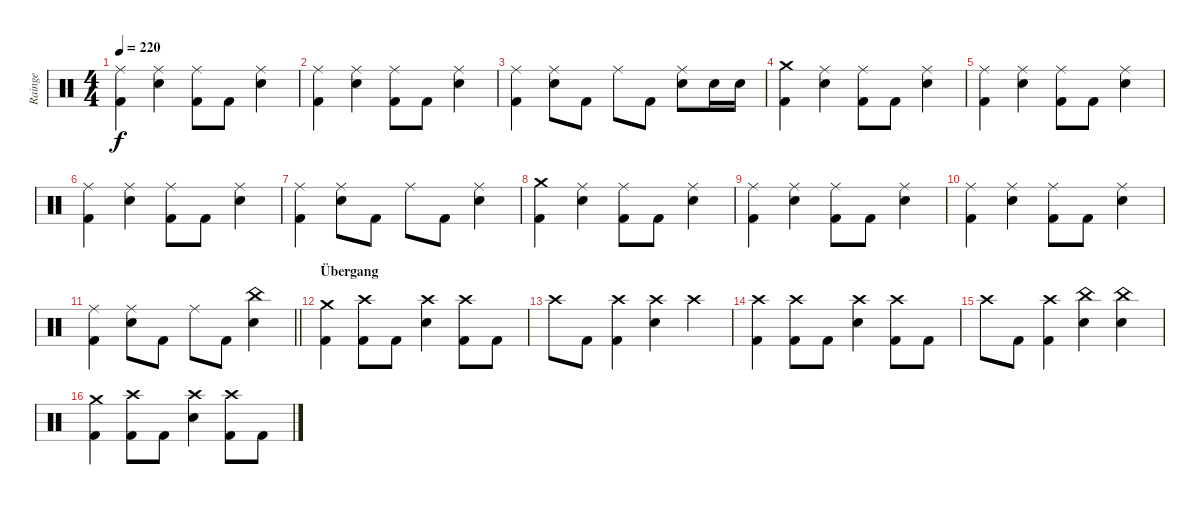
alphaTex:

\track ("Rainge" "Rainge") {instrument percussion}
\staff {score}
\articulation defaults
\ts (4 4)
\tempo 220
\clef neutral
\ks c
("Ride (middle)" "Kick (hit) 2").4{dy f} ("Ride (middle)" "Electric Snare (hit)").4 ("Ride (middle)" "Kick (hit) 2").8 "Kick (hit) 2".8 ("Ride (middle)" "Electric Snare (hit)").4 |
("Ride (middle)" "Kick (hit) 2").4 ("Ride (middle)" "Electric Snare (hit)").4 ("Ride (middle)" "Kick (hit) 2").8 "Kick (hit) 2".8 ("Ride (middle)" "Electric Snare (hit)").4 |
("Ride (middle)" "Kick (hit) 2").4 ("Ride (middle)" "Electric Snare (hit)").8 "Kick (hit) 2".8 "Ride (middle)".8 "Kick (hit) 2".8 ("Ride (middle)" "Electric Snare (hit)").8 "Electric Snare (hit)".16 "Electric Snare (hit)".16 |
("Crash medium (hit)" "Kick (hit) 2").4 ("Ride (middle)" "Electric Snare (hit)").4 ("Ride (middle)" "Kick (hit) 2").8 "Kick (hit) 2".8 ("Ride (middle)" "Electric Snare (hit)").4 |
("Ride (middle)" "Kick (hit) 2").4 ("Ride (middle)" "Electric Snare (hit)").4 ("Ride (middle)" "Kick (hit) 2").8 "Kick (hit) 2".8 ("Ride (middle)" "Electric Snare (hit)").4 |
("Ride (middle)" "Kick (hit) 2").4 ("Ride (middle)" "Electric Snare (hit)").4 ("Ride (middle)" "Kick (hit) 2").8 "Kick (hit) 2".8 ("Ride (middle)" "Electric Snare (hit)").4 |
("Ride (middle)" "Kick (hit) 2").4 ("Ride (middle)" "Electric Snare (hit)").8 "Kick (hit) 2".8 "Ride (middle)".8 "Kick (hit) 2".8 ("Ride (middle)" "Electric Snare (hit)").4 |
("Crash medium (hit)" "Kick (hit) 2").4 ("Ride (middle)" "Electric Snare (hit)").4 ("Ride (middle)" "Kick (hit) 2").8 "Kick (hit) 2".8 ("Ride (middle)" "Electric Snare (hit)").4 |
("Ride (middle)" "Kick (hit) 2").4 ("Ride (middle)" "Electric Snare (hit)").4 ("Ride (middle)" "Kick (hit) 2").8 "Kick (hit) 2".8 ("Ride (middle)" "Electric Snare (hit)").4 |
("Ride (middle)" "Kick (hit) 2").4 ("Ride (middle)" "Electric Snare (hit)").4 ("Ride (middle)" "Kick (hit) 2").8 "Kick (hit) 2".8 ("Ride (middle)" "Electric Snare (hit)").4 |
\barLineRight lightlight
("Ride (middle)" "Kick (hit) 2").4 ("Ride (middle)" "Electric Snare (hit)").8 "Kick (hit) 2".8 "Ride (middle)".8 "Kick (hit) 2".8 ("China (hit)" "Electric Snare (hit)").4 |
\section ("" "Übergang")
("Crash medium (hit)" "Kick (hit) 2").4 ("Crash high (hit)" "Kick (hit) 2").8 "Kick (hit) 2".8 ("Crash high (hit)" "Electric Snare (hit)").4 ("Crash high (hit)" "Kick (hit) 2").8 "Kick (hit) 2".8 |
"Crash high (hit)".8 "Kick (hit) 2".8 ("Crash high (hit)" "Kick (hit) 2").4 ("Crash high (hit)" "Electric Snare (hit)").4 "Crash high (hit)".4 |
("Crash high (hit)" "Kick (hit) 2").4 ("Crash high (hit)" "Kick (hit) 2").8 "Kick (hit) 2".8 ("Crash high (hit)" "Electric Snare (hit)").4 ("Crash high (hit)" "Kick (hit) 2").8 "Kick (hit) 2".8 |
"Crash high (hit)".8 "Kick (hit) 2".8 ("Crash high (hit)" "Kick (hit) 2").4 ("China (hit)" "Electric Snare (hit)").4 ("China (hit)" "Electric Snare (hit)").4 |
("Crash medium (hit)" "Kick (hit) 2").4 ("Crash high (hit)" "Kick (hit) 2").8 "Kick (hit) 2".8 ("Crash high (hit)" "Electric Snare (hit)").4 ("Crash high (hit)" "Kick (hit) 2").8 "Kick (hit) 2".8
